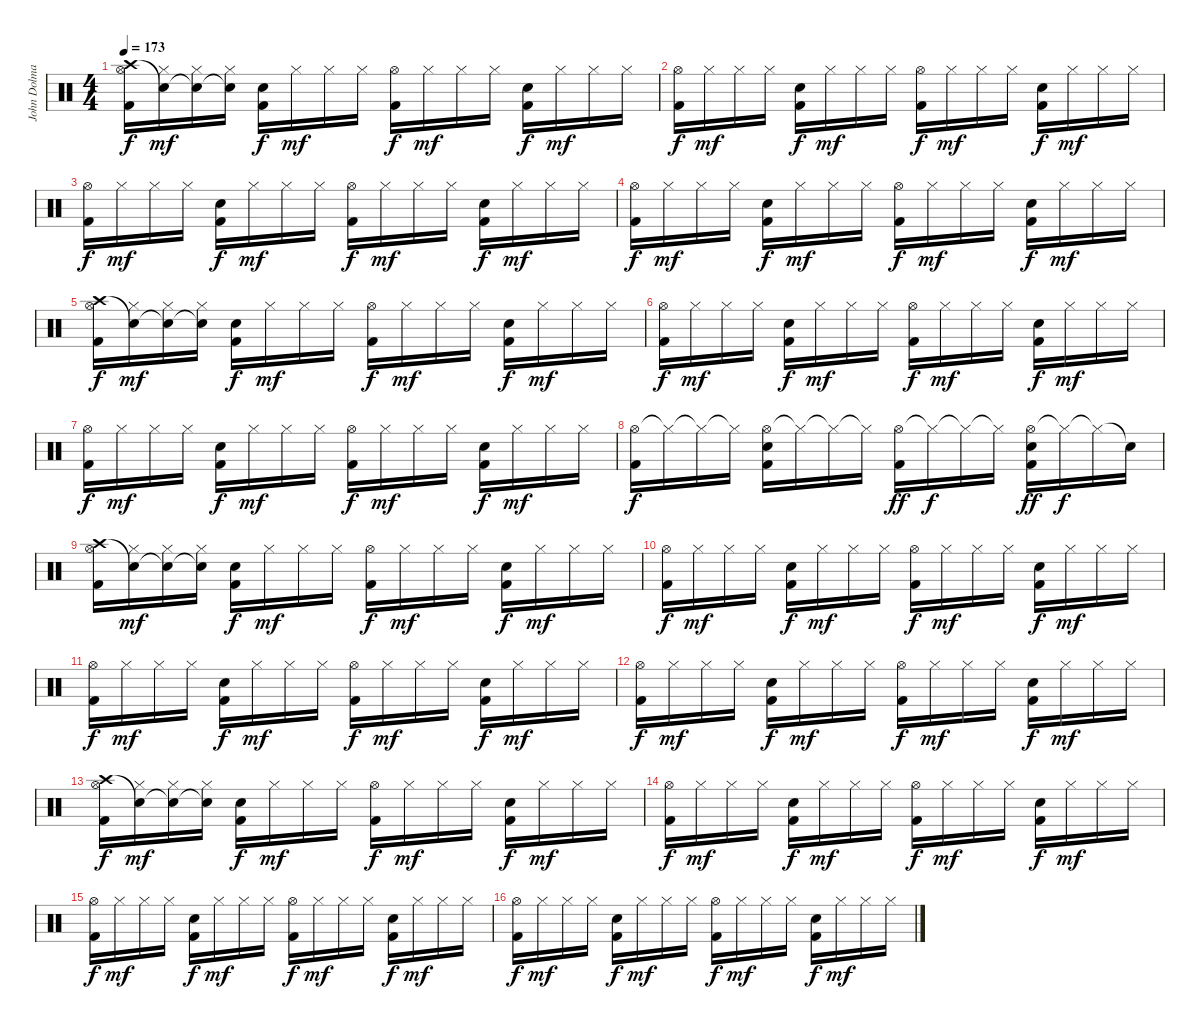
\track ("John Dolmayan" "John Dolma") {instrument percussion}
\staff {score}
\articulation defaults
\ts (4 4)
\tempo 173
\clef neutral
\ks c
("Crash high (hit)" "Hi-Hat (open)" "Kick (hit) 2").16{dy f} ("Snare (hit)"{t} "Hi-Hat (closed)").16{dy mf} ("Snare (hit)"{t} "Hi-Hat (closed)").16 ("Snare (hit)"{t} "Hi-Hat (closed)").16 ("Electric Snare (hit)" "Kick (hit) 2").16{dy f} "Hi-Hat (closed)".16{dy mf} "Hi-Hat (closed)".16 "Hi-Hat (closed)".16 ("Hi-Hat (open)" "Kick (hit) 2").16{dy f} "Hi-Hat (closed)".16{dy mf} "Hi-Hat (closed)".16 "Hi-Hat (closed)".16 ("Electric Snare (hit)" "Kick (hit) 2").16{dy f} "Hi-Hat (closed)".16{dy mf} "Hi-Hat (closed)".16 "Hi-Hat (closed)".16 |
("Hi-Hat (open)" "Kick (hit) 2").16{dy f} "Hi-Hat (closed)".16{dy mf} "Hi-Hat (closed)".16 "Hi-Hat (closed)".16 ("Electric Snare (hit)" "Kick (hit) 2").16{dy f} "Hi-Hat (closed)".16{dy mf} "Hi-Hat (closed)".16 "Hi-Hat (closed)".16 ("Hi-Hat (open)" "Kick (hit) 2").16{dy f} "Hi-Hat (closed)".16{dy mf} "Hi-Hat (closed)".16 "Hi-Hat (closed)".16 ("Electric Snare (hit)" "Kick (hit) 2").16{dy f} "Hi-Hat (closed)".16{dy mf} "Hi-Hat (closed)".16 "Hi-Hat (closed)".16 |
("Hi-Hat (open)" "Kick (hit) 2").16{dy f} "Hi-Hat (closed)".16{dy mf} "Hi-Hat (closed)".16 "Hi-Hat (closed)".16 ("Electric Snare (hit)" "Kick (hit) 2").16{dy f} "Hi-Hat (closed)".16{dy mf} "Hi-Hat (closed)".16 "Hi-Hat (closed)".16 ("Hi-Hat (open)" "Kick (hit) 2").16{dy f} "Hi-Hat (closed)".16{dy mf} "Hi-Hat (closed)".16 "Hi-Hat (closed)".16 ("Electric Snare (hit)" "Kick (hit) 2").16{dy f} "Hi-Hat (closed)".16{dy mf} "Hi-Hat (closed)".16 "Hi-Hat (closed)".16 |
("Hi-Hat (open)" "Kick (hit) 2").16{dy f} "Hi-Hat (closed)".16{dy mf} "Hi-Hat (closed)".16 "Hi-Hat (closed)".16 ("Electric Snare (hit)" "Kick (hit) 2").16{dy f} "Hi-Hat (closed)".16{dy mf} "Hi-Hat (closed)".16 "Hi-Hat (closed)".16 ("Hi-Hat (open)" "Kick (hit) 2").16{dy f} "Hi-Hat (closed)".16{dy mf} "Hi-Hat (closed)".16 "Hi-Hat (closed)".16 ("Electric Snare (hit)" "Kick (hit) 2").16{dy f} "Hi-Hat (closed)".16{dy mf} "Hi-Hat (closed)".16 "Hi-Hat (closed)".16 |
("Crash high (hit)" "Hi-Hat (open)" "Kick (hit) 2").16{dy f} ("Snare (hit)"{t} "Hi-Hat (closed)").16{dy mf} ("Snare (hit)"{t} "Hi-Hat (closed)").16 ("Snare (hit)"{t} "Hi-Hat (closed)").16 ("Electric Snare (hit)" "Kick (hit) 2").16{dy f} "Hi-Hat (closed)".16{dy mf} "Hi-Hat (closed)".16 "Hi-Hat (closed)".16 ("Hi-Hat (open)" "Kick (hit) 2").16{dy f} "Hi-Hat (closed)".16{dy mf} "Hi-Hat (closed)".16 "Hi-Hat (closed)".16 ("Electric Snare (hit)" "Kick (hit) 2").16{dy f} "Hi-Hat (closed)".16{dy mf} "Hi-Hat (closed)".16 "Hi-Hat (closed)".16 |
("Hi-Hat (open)" "Kick (hit) 2").16{dy f} "Hi-Hat (closed)".16{dy mf} "Hi-Hat (closed)".16 "Hi-Hat (closed)".16 ("Electric Snare (hit)" "Kick (hit) 2").16{dy f} "Hi-Hat (closed)".16{dy mf} "Hi-Hat (closed)".16 "Hi-Hat (closed)".16 ("Hi-Hat (open)" "Kick (hit) 2").16{dy f} "Hi-Hat (closed)".16{dy mf} "Hi-Hat (closed)".16 "Hi-Hat (closed)".16 ("Electric Snare (hit)" "Kick (hit) 2").16{dy f} "Hi-Hat (closed)".16{dy mf} "Hi-Hat (closed)".16 "Hi-Hat (closed)".16 |
("Hi-Hat (open)" "Kick (hit) 2").16{dy f} "Hi-Hat (closed)".16{dy mf} "Hi-Hat (closed)".16 "Hi-Hat (closed)".16 ("Electric Snare (hit)" "Kick (hit) 2").16{dy f} "Hi-Hat (closed)".16{dy mf} "Hi-Hat (closed)".16 "Hi-Hat (closed)".16 ("Hi-Hat (open)" "Kick (hit) 2").16{dy f} "Hi-Hat (closed)".16{dy mf} "Hi-Hat (closed)".16 "Hi-Hat (closed)".16 ("Electric Snare (hit)" "Kick (hit) 2").16{dy f} "Hi-Hat (closed)".16{dy mf} "Hi-Hat (closed)".16 "Hi-Hat (closed)".16 |
("Hi-Hat (open)" "Kick (hit) 2").16{dy f} "Hi-Hat (closed)"{t}.16 "Hi-Hat (closed)"{t}.16 "Hi-Hat (closed)"{t}.16 ("Hi-Hat (open)" "Electric Snare (hit)" "Kick (hit) 2").16 "Hi-Hat (closed)"{t}.16 "Hi-Hat (closed)"{t}.16 "Hi-Hat (closed)"{t}.16 ("Hi-Hat (open)" "Kick (hit) 2").16{dy ff} "Hi-Hat (closed)"{t}.16{dy f} "Hi-Hat (closed)"{t}.16 "Hi-Hat (closed)"{t}.16 ("Hi-Hat (open)" "Electric Snare (hit)" "Kick (hit) 2").16{dy ff} "Hi-Hat (closed)"{t}.16{dy f} "Hi-Hat (closed)"{t}.16 "Snare (hit)"{t}.16 |
("Crash high (hit)" "Hi-Hat (open)" "Kick (hit) 2").16 ("Snare (hit)"{t} "Hi-Hat (closed)").16{dy mf} ("Snare (hit)"{t} "Hi-Hat (closed)").16 ("Snare (hit)"{t} "Hi-Hat (closed)").16 ("Electric Snare (hit)" "Kick (hit) 2").16{dy f} "Hi-Hat (closed)".16{dy mf} "Hi-Hat (closed)".16 "Hi-Hat (closed)".16 ("Hi-Hat (open)" "Kick (hit) 2").16{dy f} "Hi-Hat (closed)".16{dy mf} "Hi-Hat (closed)".16 "Hi-Hat (closed)".16 ("Electric Snare (hit)" "Kick (hit) 2").16{dy f} "Hi-Hat (closed)".16{dy mf} "Hi-Hat (closed)".16 "Hi-Hat (closed)".16 |
("Hi-Hat (open)" "Kick (hit) 2").16{dy f} "Hi-Hat (closed)".16{dy mf} "Hi-Hat (closed)".16 "Hi-Hat (closed)".16 ("Electric Snare (hit)" "Kick (hit) 2").16{dy f} "Hi-Hat (closed)".16{dy mf} "Hi-Hat (closed)".16 "Hi-Hat (closed)".16 ("Hi-Hat (open)" "Kick (hit) 2").16{dy f} "Hi-Hat (closed)".16{dy mf} "Hi-Hat (closed)".16 "Hi-Hat (closed)".16 ("Electric Snare (hit)" "Kick (hit) 2").16{dy f} "Hi-Hat (closed)".16{dy mf} "Hi-Hat (closed)".16 "Hi-Hat (closed)".16 |
("Hi-Hat (open)" "Kick (hit) 2").16{dy f} "Hi-Hat (closed)".16{dy mf} "Hi-Hat (closed)".16 "Hi-Hat (closed)".16 ("Electric Snare (hit)" "Kick (hit) 2").16{dy f} "Hi-Hat (closed)".16{dy mf} "Hi-Hat (closed)".16 "Hi-Hat (closed)".16 ("Hi-Hat (open)" "Kick (hit) 2").16{dy f} "Hi-Hat (closed)".16{dy mf} "Hi-Hat (closed)".16 "Hi-Hat (closed)".16 ("Electric Snare (hit)" "Kick (hit) 2").16{dy f} "Hi-Hat (closed)".16{dy mf} "Hi-Hat (closed)".16 "Hi-Hat (closed)".16 |
("Hi-Hat (open)" "Kick (hit) 2").16{dy f} "Hi-Hat (closed)".16{dy mf} "Hi-Hat (closed)".16 "Hi-Hat (closed)".16 ("Electric Snare (hit)" "Kick (hit) 2").16{dy f} "Hi-Hat (closed)".16{dy mf} "Hi-Hat (closed)".16 "Hi-Hat (closed)".16 ("Hi-Hat (open)" "Kick (hit) 2").16{dy f} "Hi-Hat (closed)".16{dy mf} "Hi-Hat (closed)".16 "Hi-Hat (closed)".16 ("Electric Snare (hit)" "Kick (hit) 2").16{dy f} "Hi-Hat (closed)".16{dy mf} "Hi-Hat (closed)".16 "Hi-Hat (closed)".16 |
("Crash high (hit)" "Hi-Hat (open)" "Kick (hit) 2").16{dy f} ("Snare (hit)"{t} "Hi-Hat (closed)").16{dy mf} ("Snare (hit)"{t} "Hi-Hat (closed)").16 ("Snare (hit)"{t} "Hi-Hat (closed)").16 ("Electric Snare (hit)" "Kick (hit) 2").16{dy f} "Hi-Hat (closed)".16{dy mf} "Hi-Hat (closed)".16 "Hi-Hat (closed)".16 ("Hi-Hat (open)" "Kick (hit) 2").16{dy f} "Hi-Hat (closed)".16{dy mf} "Hi-Hat (closed)".16 "Hi-Hat (closed)".16 ("Electric Snare (hit)" "Kick (hit) 2").16{dy f} "Hi-Hat (closed)".16{dy mf} "Hi-Hat (closed)".16 "Hi-Hat (closed)".16 |
("Hi-Hat (open)" "Kick (hit) 2").16{dy f} "Hi-Hat (closed)".16{dy mf} "Hi-Hat (closed)".16 "Hi-Hat (closed)".16 ("Electric Snare (hit)" "Kick (hit) 2").16{dy f} "Hi-Hat (closed)".16{dy mf} "Hi-Hat (closed)".16 "Hi-Hat (closed)".16 ("Hi-Hat (open)" "Kick (hit) 2").16{dy f} "Hi-Hat (closed)".16{dy mf} "Hi-Hat (closed)".16 "Hi-Hat (closed)".16 ("Electric Snare (hit)" "Kick (hit) 2").16{dy f} "Hi-Hat (closed)".16{dy mf} "Hi-Hat (closed)".16 "Hi-Hat (closed)".16 |
("Hi-Hat (open)" "Kick (hit) 2").16{dy f} "Hi-Hat (closed)".16{dy mf} "Hi-Hat (closed)".16 "Hi-Hat (closed)".16 ("Electric Snare (hit)" "Kick (hit) 2").16{dy f} "Hi-Hat (closed)".16{dy mf} "Hi-Hat (closed)".16 "Hi-Hat (closed)".16 ("Hi-Hat (open)" "Kick (hit) 2").16{dy f} "Hi-Hat (closed)".16{dy mf} "Hi-Hat (closed)".16 "Hi-Hat (closed)".16 ("Electric Snare (hit)" "Kick (hit) 2").16{dy f} "Hi-Hat (closed)".16{dy mf} "Hi-Hat (closed)".16 "Hi-Hat (closed)".16 |
("Hi-Hat (open)" "Kick (hit) 2").16{dy f} "Hi-Hat (closed)".16{dy mf} "Hi-Hat (closed)".16 "Hi-Hat (closed)".16 ("Electric Snare (hit)" "Kick (hit) 2").16{dy f} "Hi-Hat (closed)".16{dy mf} "Hi-Hat (closed)".16 "Hi-Hat (closed)".16 ("Hi-Hat (open)" "Kick (hit) 2").16{dy f} "Hi-Hat (closed)".16{dy mf} "Hi-Hat (closed)".16 "Hi-Hat (closed)".16 ("Electric Snare (hit)" "Kick (hit) 2").16{dy f} "Hi-Hat (closed)".16{dy mf} "Hi-Hat (closed)".16 "Hi-Hat (closed)".16
